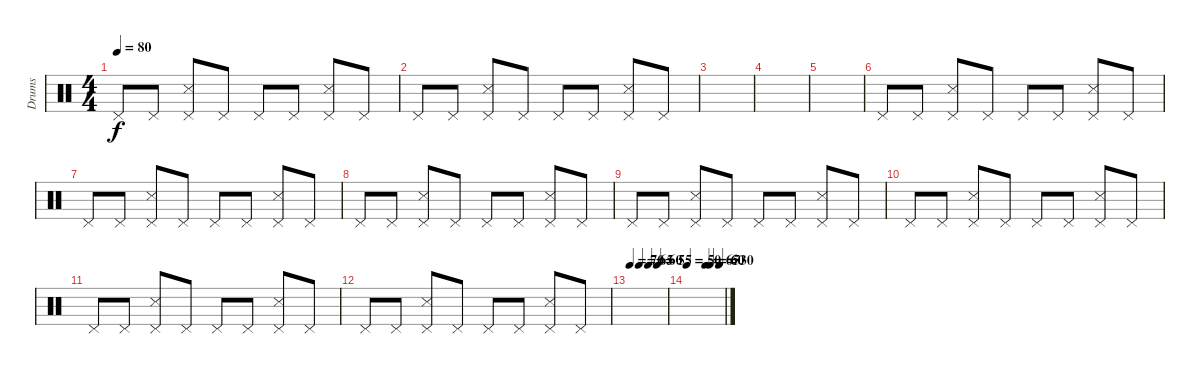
\track ("Drums" "Drums") {instrument percussion}
\staff {score}
\articulation defaults
\ts (4 4)
\tempo 80
\clef neutral
\ks c "Pedal Hi-Hat (hit)".8{dy f} "Pedal Hi-Hat (hit)".8
("Pedal Hi-Hat (hit)" "Snare (side stick) 3").8 "Pedal Hi-Hat (hit)".8 "Pedal Hi-Hat (hit)".8 "Pedal Hi-Hat (hit)".8 ("Pedal Hi-Hat (hit)" "Snare (side stick) 3").8 "Pedal Hi-Hat (hit)".8 |
"Pedal Hi-Hat (hit)".8 "Pedal Hi-Hat (hit)".8 ("Pedal Hi-Hat (hit)" "Snare (side stick) 3").8 "Pedal Hi-Hat (hit)".8 "Pedal Hi-Hat (hit)".8 "Pedal Hi-Hat (hit)".8 ("Pedal Hi-Hat (hit)" "Snare (side stick) 3").8 "Pedal Hi-Hat (hit)".8 |
|
|
|
"Pedal Hi-Hat (hit)".8 "Pedal Hi-Hat (hit)".8 ("Pedal Hi-Hat (hit)" "Snare (side stick) 3").8 "Pedal Hi-Hat (hit)".8 "Pedal Hi-Hat (hit)".8 "Pedal Hi-Hat (hit)".8 ("Pedal Hi-Hat (hit)" "Snare (side stick) 3").8 "Pedal Hi-Hat (hit)".8 |
"Pedal Hi-Hat (hit)".8 "Pedal Hi-Hat (hit)".8 ("Pedal Hi-Hat (hit)" "Snare (side stick) 3").8 "Pedal Hi-Hat (hit)".8 "Pedal Hi-Hat (hit)".8 "Pedal Hi-Hat (hit)".8 ("Pedal Hi-Hat (hit)" "Snare (side stick) 3").8 "Pedal Hi-Hat (hit)".8 |
"Pedal Hi-Hat (hit)".8 "Pedal Hi-Hat (hit)".8 ("Pedal Hi-Hat (hit)" "Snare (side stick) 3").8 "Pedal Hi-Hat (hit)".8 "Pedal Hi-Hat (hit)".8 "Pedal Hi-Hat (hit)".8 ("Pedal Hi-Hat (hit)" "Snare (side stick) 3").8 "Pedal Hi-Hat (hit)".8 |
"Pedal Hi-Hat (hit)".8 "Pedal Hi-Hat (hit)".8 ("Pedal Hi-Hat (hit)" "Snare (side stick) 3").8 "Pedal Hi-Hat (hit)".8 "Pedal Hi-Hat (hit)".8 "Pedal Hi-Hat (hit)".8 ("Pedal Hi-Hat (hit)" "Snare (side stick) 3").8 "Pedal Hi-Hat (hit)".8 |
"Pedal Hi-Hat (hit)".8 "Pedal Hi-Hat (hit)".8 ("Pedal Hi-Hat (hit)" "Snare (side stick) 3").8 "Pedal Hi-Hat (hit)".8 "Pedal Hi-Hat (hit)".8 "Pedal Hi-Hat (hit)".8 ("Pedal Hi-Hat (hit)" "Snare (side stick) 3").8 "Pedal Hi-Hat (hit)".8 |
"Pedal Hi-Hat (hit)".8 "Pedal Hi-Hat (hit)".8 ("Pedal Hi-Hat (hit)" "Snare (side stick) 3").8 "Pedal Hi-Hat (hit)".8 "Pedal Hi-Hat (hit)".8 "Pedal Hi-Hat (hit)".8 ("Pedal Hi-Hat (hit)" "Snare (side stick) 3").8 "Pedal Hi-Hat (hit)".8 |
"Pedal Hi-Hat (hit)".8 "Pedal Hi-Hat (hit)".8 ("Pedal Hi-Hat (hit)" "Snare (side stick) 3").8 "Pedal Hi-Hat (hit)".8 "Pedal Hi-Hat (hit)".8 "Pedal Hi-Hat (hit)".8 ("Pedal Hi-Hat (hit)" "Snare (side stick) 3").8 "Pedal Hi-Hat (hit)".8 |
\tempo 70
\tempo (65 0.25)
\tempo (60 0.5)
\tempo (55 0.75)
|
\tempo 50
\tempo (45 0.5)
\tempo (65 0.5)
\tempo (60 0.625)
\tempo (30 0.875)
